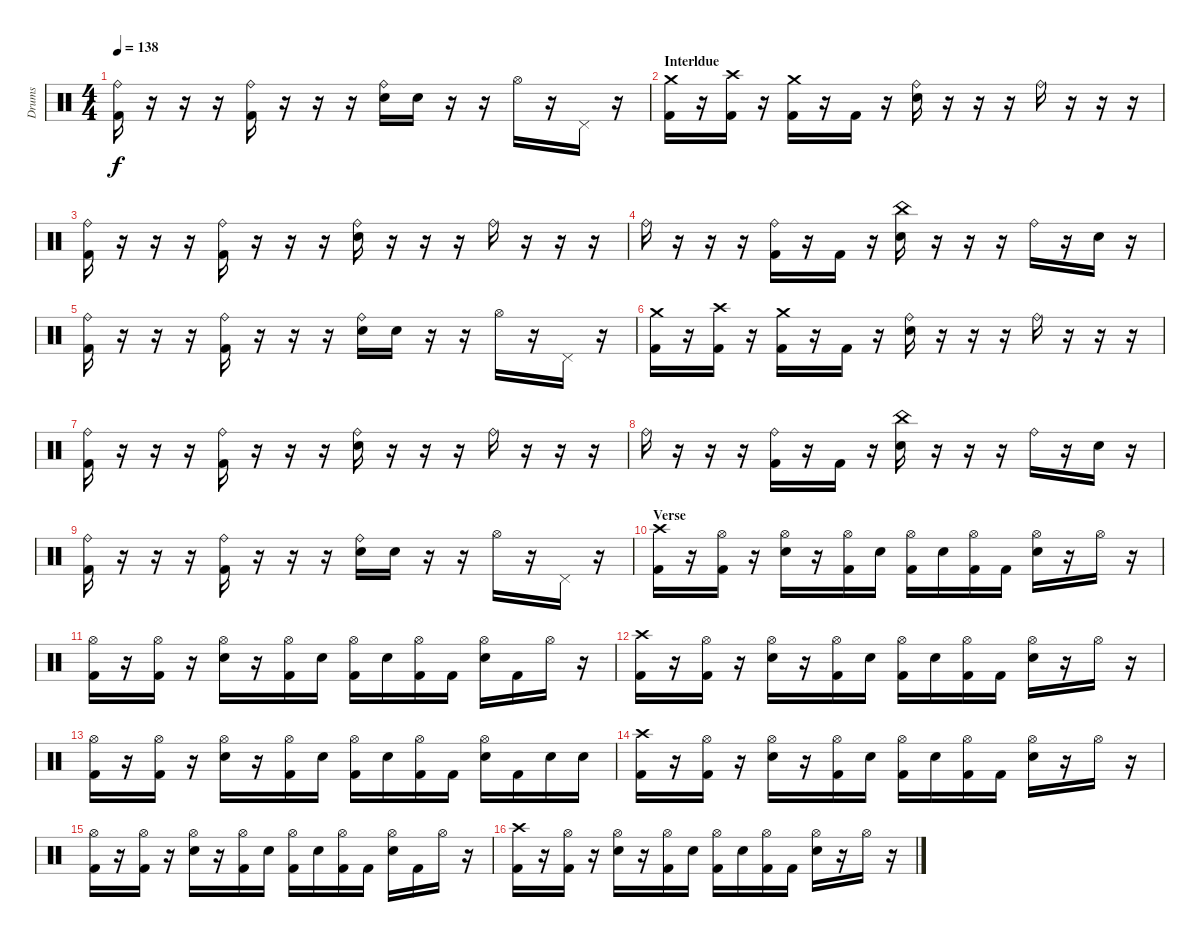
\track ("Drums" "Drums") {instrument percussion}
\staff {score}
\articulation defaults
\ts (4 4)
\tempo 138
\clef neutral
\ks c
("Ride (bell)" "Kick (hit) 2").16{dy f} r.16 r.16 r.16 ("Ride (bell)" "Kick (hit) 2").16 r.16 r.16 r.16 ("Ride (bell)" "Snare (hit) 2").16 "Snare (hit) 2".16 r.16 r.16 "Hi-Hat (open)".16 r.16 "Pedal Hi-Hat (hit)".16 r.16 |
\section ("" "Interldue")
("Crash medium (hit)" "Kick (hit) 2").16 r.16 ("Crash high (hit)" "Kick (hit) 2").16 r.16 ("Crash medium (hit)" "Kick (hit) 2").16 r.16 "Kick (hit) 2".16 r.16 ("Ride (bell)" "Snare (hit) 2").16 r.16 r.16 r.16 "Ride (bell)".16 r.16 r.16 r.16 |
("Ride (bell)" "Kick (hit) 2").16 r.16 r.16 r.16 ("Ride (bell)" "Kick (hit) 2").16 r.16 r.16 r.16 ("Ride (bell)" "Snare (hit) 2").16 r.16 r.16 r.16 "Ride (bell)".16 r.16 r.16 r.16 |
"Ride (bell)".16 r.16 r.16 r.16 ("Ride (bell)" "Kick (hit) 2").16 r.16 "Kick (hit) 2".16 r.16 ("China (hit)" "Snare (hit) 2").16 r.16 r.16 r.16 "Ride (bell)".16 r.16 "Snare (hit) 2".16 r.16 |
("Ride (bell)" "Kick (hit) 2").16 r.16 r.16 r.16 ("Ride (bell)" "Kick (hit) 2").16 r.16 r.16 r.16 ("Ride (bell)" "Snare (hit) 2").16 "Snare (hit) 2".16 r.16 r.16 "Hi-Hat (open)".16 r.16 "Pedal Hi-Hat (hit)".16 r.16 |
("Crash medium (hit)" "Kick (hit) 2").16 r.16 ("Crash high (hit)" "Kick (hit) 2").16 r.16 ("Crash medium (hit)" "Kick (hit) 2").16 r.16 "Kick (hit) 2".16 r.16 ("Ride (bell)" "Snare (hit) 2").16 r.16 r.16 r.16 "Ride (bell)".16 r.16 r.16 r.16 |
("Ride (bell)" "Kick (hit) 2").16 r.16 r.16 r.16 ("Ride (bell)" "Kick (hit) 2").16 r.16 r.16 r.16 ("Ride (bell)" "Snare (hit) 2").16 r.16 r.16 r.16 "Ride (bell)".16 r.16 r.16 r.16 |
"Ride (bell)".16 r.16 r.16 r.16 ("Ride (bell)" "Kick (hit) 2").16 r.16 "Kick (hit) 2".16 r.16 ("China (hit)" "Snare (hit) 2").16 r.16 r.16 r.16 "Ride (bell)".16 r.16 "Snare (hit) 2".16 r.16 |
("Ride (bell)" "Kick (hit) 2").16 r.16 r.16 r.16 ("Ride (bell)" "Kick (hit) 2").16 r.16 r.16 r.16 ("Ride (bell)" "Snare (hit) 2").16 "Snare (hit) 2".16 r.16 r.16 "Hi-Hat (open)".16 r.16 "Pedal Hi-Hat (hit)".16 r.16 |
\section ("" "Verse")
("Crash high (hit)" "Kick (hit) 2").16 r.16 ("Hi-Hat (open)" "Kick (hit) 2").16 r.16 ("Hi-Hat (open)" "Snare (hit) 2").16 r.16 ("Hi-Hat (open)" "Kick (hit) 2").16 "Snare (hit) 2".16 ("Hi-Hat (open)" "Kick (hit) 2").16 "Snare (hit) 2".16 ("Hi-Hat (open)" "Kick (hit) 2").16 "Kick (hit) 2".16 ("Hi-Hat (open)" "Snare (hit) 2").16 r.16 "Hi-Hat (open)".16 r.16 |
("Hi-Hat (open)" "Kick (hit) 2").16 r.16 ("Hi-Hat (open)" "Kick (hit) 2").16 r.16 ("Hi-Hat (open)" "Snare (hit) 2").16 r.16 ("Hi-Hat (open)" "Kick (hit) 2").16 "Snare (hit) 2".16 ("Hi-Hat (open)" "Kick (hit) 2").16 "Snare (hit) 2".16 ("Hi-Hat (open)" "Kick (hit) 2").16 "Kick (hit) 2".16 ("Hi-Hat (open)" "Snare (hit) 2").16 "Kick (hit) 2".16 "Hi-Hat (open)".16 r.16 |
("Crash high (hit)" "Kick (hit) 2").16 r.16 ("Hi-Hat (open)" "Kick (hit) 2").16 r.16 ("Hi-Hat (open)" "Snare (hit) 2").16 r.16 ("Hi-Hat (open)" "Kick (hit) 2").16 "Snare (hit) 2".16 ("Hi-Hat (open)" "Kick (hit) 2").16 "Snare (hit) 2".16 ("Hi-Hat (open)" "Kick (hit) 2").16 "Kick (hit) 2".16 ("Hi-Hat (open)" "Snare (hit) 2").16 r.16 "Hi-Hat (open)".16 r.16 |
("Hi-Hat (open)" "Kick (hit) 2").16 r.16 ("Hi-Hat (open)" "Kick (hit) 2").16 r.16 ("Hi-Hat (open)" "Snare (hit) 2").16 r.16 ("Hi-Hat (open)" "Kick (hit) 2").16 "Snare (hit) 2".16 ("Hi-Hat (open)" "Kick (hit) 2").16 "Snare (hit) 2".16 ("Hi-Hat (open)" "Kick (hit) 2").16 "Kick (hit) 2".16 ("Hi-Hat (open)" "Snare (hit) 2").16 "Kick (hit) 2".16 "Snare (hit) 2".16 "Snare (hit) 2".16 |
("Crash high (hit)" "Kick (hit) 2").16 r.16 ("Hi-Hat (open)" "Kick (hit) 2").16 r.16 ("Hi-Hat (open)" "Snare (hit) 2").16 r.16 ("Hi-Hat (open)" "Kick (hit) 2").16 "Snare (hit) 2".16 ("Hi-Hat (open)" "Kick (hit) 2").16 "Snare (hit) 2".16 ("Hi-Hat (open)" "Kick (hit) 2").16 "Kick (hit) 2".16 ("Hi-Hat (open)" "Snare (hit) 2").16 r.16 "Hi-Hat (open)".16 r.16 |
("Hi-Hat (open)" "Kick (hit) 2").16 r.16 ("Hi-Hat (open)" "Kick (hit) 2").16 r.16 ("Hi-Hat (open)" "Snare (hit) 2").16 r.16 ("Hi-Hat (open)" "Kick (hit) 2").16 "Snare (hit) 2".16 ("Hi-Hat (open)" "Kick (hit) 2").16 "Snare (hit) 2".16 ("Hi-Hat (open)" "Kick (hit) 2").16 "Kick (hit) 2".16 ("Hi-Hat (open)" "Snare (hit) 2").16 "Kick (hit) 2".16 "Hi-Hat (open)".16 r.16 |
("Crash high (hit)" "Kick (hit) 2").16 r.16 ("Hi-Hat (open)" "Kick (hit) 2").16 r.16 ("Hi-Hat (open)" "Snare (hit) 2").16 r.16 ("Hi-Hat (open)" "Kick (hit) 2").16 "Snare (hit) 2".16 ("Hi-Hat (open)" "Kick (hit) 2").16 "Snare (hit) 2".16 ("Hi-Hat (open)" "Kick (hit) 2").16 "Kick (hit) 2".16 ("Hi-Hat (open)" "Snare (hit) 2").16 r.16 "Hi-Hat (open)".16 r.16
